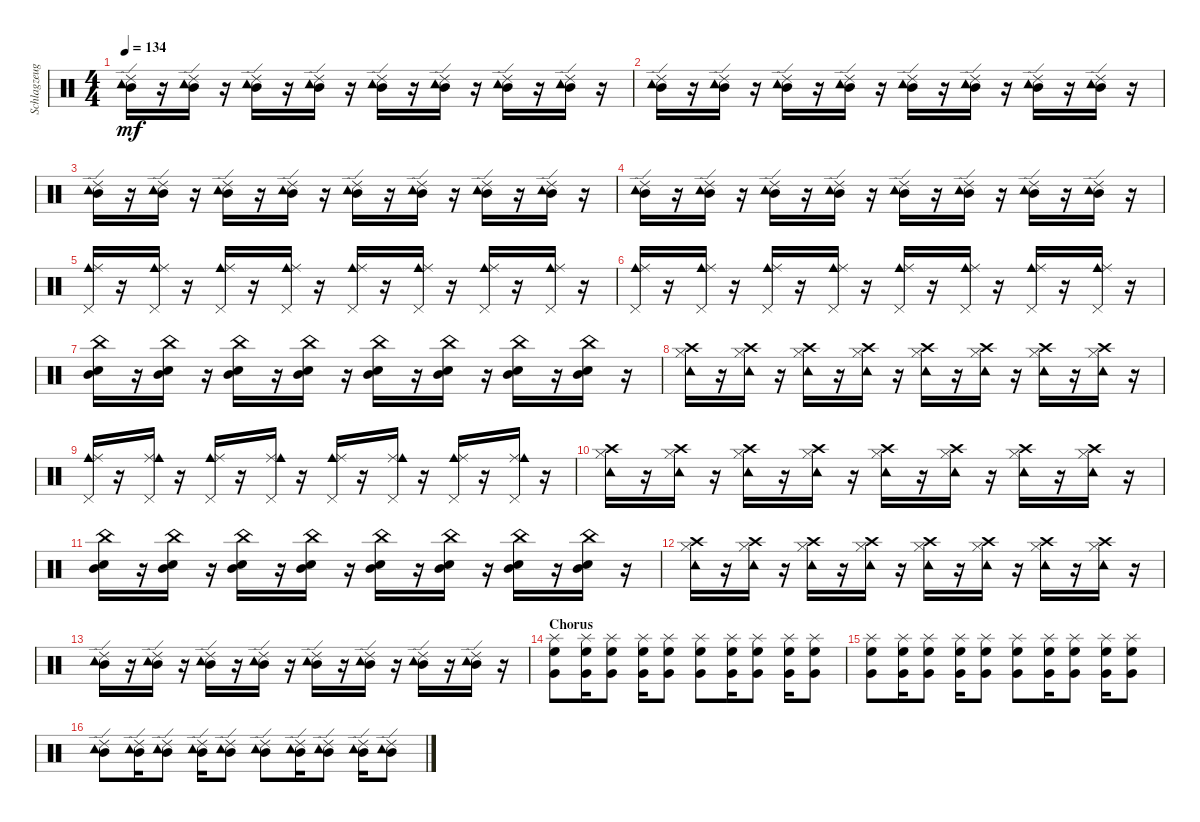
\track ("Schlagzeug - Bela B." "Schlagzeug") {instrument percussion}
\staff {score}
\articulation defaults
\ts (4 4)
\tempo 134
\clef neutral
\ks c
("Ride (edge) 2" "Tambourine (hit)" "Mid Tom (hit)").16{dy mf} r.16 ("Mid Tom (hit)" "Tambourine (hit)" "Ride (edge) 2").16 r.16 ("Ride (edge) 2" "Tambourine (hit)" "Mid Tom (hit)").16 r.16 ("Mid Tom (hit)" "Tambourine (hit)" "Ride (edge) 2").16 r.16 ("Ride (edge) 2" "Tambourine (hit)" "Mid Tom (hit)").16 r.16 ("Mid Tom (hit)" "Tambourine (hit)" "Ride (edge) 2").16 r.16 ("Ride (edge) 2" "Tambourine (hit)" "Mid Tom (hit)").16 r.16 ("Mid Tom (hit)" "Tambourine (hit)" "Ride (edge) 2").16 r.16 |
("Ride (edge) 2" "Tambourine (hit)" "Mid Tom (hit)").16 r.16 ("Mid Tom (hit)" "Tambourine (hit)" "Ride (edge) 2").16 r.16 ("Ride (edge) 2" "Tambourine (hit)" "Mid Tom (hit)").16 r.16 ("Mid Tom (hit)" "Tambourine (hit)" "Ride (edge) 2").16 r.16 ("Ride (edge) 2" "Tambourine (hit)" "Mid Tom (hit)").16 r.16 ("Mid Tom (hit)" "Tambourine (hit)" "Ride (edge) 2").16 r.16 ("Ride (edge) 2" "Tambourine (hit)" "Mid Tom (hit)").16 r.16 ("Mid Tom (hit)" "Tambourine (hit)" "Ride (edge) 2").16 r.16 |
("Ride (edge) 2" "Tambourine (hit)" "Mid Tom (hit)").16 r.16 ("Mid Tom (hit)" "Tambourine (hit)" "Ride (edge) 2").16 r.16 ("Ride (edge) 2" "Tambourine (hit)" "Mid Tom (hit)").16 r.16 ("Mid Tom (hit)" "Tambourine (hit)" "Ride (edge) 2").16 r.16 ("Ride (edge) 2" "Tambourine (hit)" "Mid Tom (hit)").16 r.16 ("Mid Tom (hit)" "Tambourine (hit)" "Ride (edge) 2").16 r.16 ("Ride (edge) 2" "Tambourine (hit)" "Mid Tom (hit)").16 r.16 ("Mid Tom (hit)" "Tambourine (hit)" "Ride (edge) 2").16 r.16 |
("Ride (edge) 2" "Tambourine (hit)" "Mid Tom (hit)").16 r.16 ("Mid Tom (hit)" "Tambourine (hit)" "Ride (edge) 2").16 r.16 ("Ride (edge) 2" "Tambourine (hit)" "Mid Tom (hit)").16 r.16 ("Mid Tom (hit)" "Tambourine (hit)" "Ride (edge) 2").16 r.16 ("Ride (edge) 2" "Tambourine (hit)" "Mid Tom (hit)").16 r.16 ("Mid Tom (hit)" "Tambourine (hit)" "Ride (edge) 2").16 r.16 ("Ride (edge) 2" "Tambourine (hit)" "Mid Tom (hit)").16 r.16 ("Mid Tom (hit)" "Tambourine (hit)" "Ride (edge) 2").16 r.16 |
("Cowbell medium (hit)" "Ride (middle)" "Pedal Hi-Hat (hit)").16 r.16 ("Cowbell medium (hit)" "Ride (middle)" "Pedal Hi-Hat (hit)").16 r.16 ("Cowbell medium (hit)" "Ride (middle)" "Pedal Hi-Hat (hit)").16 r.16 ("Cowbell medium (hit)" "Ride (middle)" "Pedal Hi-Hat (hit)").16 r.16 ("Cowbell medium (hit)" "Ride (middle)" "Pedal Hi-Hat (hit)").16 r.16 ("Cowbell medium (hit)" "Ride (middle)" "Pedal Hi-Hat (hit)").16 r.16 ("Cowbell medium (hit)" "Ride (middle)" "Pedal Hi-Hat (hit)").16 r.16 ("Cowbell medium (hit)" "Ride (middle)" "Pedal Hi-Hat (hit)").16 r.16 |
("Cowbell medium (hit)" "Ride (middle)" "Pedal Hi-Hat (hit)").16 r.16 ("Cowbell medium (hit)" "Ride (middle)" "Pedal Hi-Hat (hit)").16 r.16 ("Cowbell medium (hit)" "Ride (middle)" "Pedal Hi-Hat (hit)").16 r.16 ("Cowbell medium (hit)" "Ride (middle)" "Pedal Hi-Hat (hit)").16 r.16 ("Cowbell medium (hit)" "Ride (middle)" "Pedal Hi-Hat (hit)").16 r.16 ("Cowbell medium (hit)" "Ride (middle)" "Pedal Hi-Hat (hit)").16 r.16 ("Cowbell medium (hit)" "Ride (middle)" "Pedal Hi-Hat (hit)").16 r.16 ("Cowbell medium (hit)" "Ride (middle)" "Pedal Hi-Hat (hit)").16 r.16 |
("Electric Snare (hit)" "Mid Tom (hit)" "China (hit)").16 r.16 ("Electric Snare (hit)" "Mid Tom (hit)" "China (hit)").16 r.16 ("Electric Snare (hit)" "Mid Tom (hit)" "China (hit)").16 r.16 ("Electric Snare (hit)" "Mid Tom (hit)" "China (hit)").16 r.16 ("Electric Snare (hit)" "Mid Tom (hit)" "China (hit)").16 r.16 ("Electric Snare (hit)" "Mid Tom (hit)" "China (hit)").16 r.16 ("Electric Snare (hit)" "Mid Tom (hit)" "China (hit)").16 r.16 ("Electric Snare (hit)" "Mid Tom (hit)" "China (hit)").16 r.16 |
("Hi-Hat (closed)" "Crash high (hit)" "Tambourine (hit)").16 r.16 ("Hi-Hat (closed)" "Crash high (hit)" "Tambourine (hit)").16 r.16 ("Hi-Hat (closed)" "Crash high (hit)" "Tambourine (hit)").16 r.16 ("Hi-Hat (closed)" "Crash high (hit)" "Tambourine (hit)").16 r.16 ("Hi-Hat (closed)" "Crash high (hit)" "Tambourine (hit)").16 r.16 ("Hi-Hat (closed)" "Crash high (hit)" "Tambourine (hit)").16 r.16 ("Hi-Hat (closed)" "Crash high (hit)" "Tambourine (hit)").16 r.16 ("Hi-Hat (closed)" "Crash high (hit)" "Tambourine (hit)").16 r.16 |
("Cowbell medium (hit)" "Ride (middle)" "Pedal Hi-Hat (hit)").16 r.16 ("Pedal Hi-Hat (hit)" "Ride (middle)" "Cowbell medium (hit)").16 r.16 ("Cowbell medium (hit)" "Ride (middle)" "Pedal Hi-Hat (hit)").16 r.16 ("Pedal Hi-Hat (hit)" "Ride (middle)" "Cowbell medium (hit)").16 r.16 ("Cowbell medium (hit)" "Ride (middle)" "Pedal Hi-Hat (hit)").16 r.16 ("Pedal Hi-Hat (hit)" "Ride (middle)" "Cowbell medium (hit)").16 r.16 ("Cowbell medium (hit)" "Ride (middle)" "Pedal Hi-Hat (hit)").16 r.16 ("Pedal Hi-Hat (hit)" "Ride (middle)" "Cowbell medium (hit)").16 r.16 |
("Hi-Hat (closed)" "Crash high (hit)" "Tambourine (hit)").16 r.16 ("Hi-Hat (closed)" "Crash high (hit)" "Tambourine (hit)").16 r.16 ("Hi-Hat (closed)" "Crash high (hit)" "Tambourine (hit)").16 r.16 ("Hi-Hat (closed)" "Crash high (hit)" "Tambourine (hit)").16 r.16 ("Hi-Hat (closed)" "Crash high (hit)" "Tambourine (hit)").16 r.16 ("Hi-Hat (closed)" "Crash high (hit)" "Tambourine (hit)").16 r.16 ("Hi-Hat (closed)" "Crash high (hit)" "Tambourine (hit)").16 r.16 ("Hi-Hat (closed)" "Crash high (hit)" "Tambourine (hit)").16 r.16 |
("Electric Snare (hit)" "Mid Tom (hit)" "China (hit)").16 r.16 ("Electric Snare (hit)" "Mid Tom (hit)" "China (hit)").16 r.16 ("Electric Snare (hit)" "Mid Tom (hit)" "China (hit)").16 r.16 ("Electric Snare (hit)" "Mid Tom (hit)" "China (hit)").16 r.16 ("Electric Snare (hit)" "Mid Tom (hit)" "China (hit)").16 r.16 ("Electric Snare (hit)" "Mid Tom (hit)" "China (hit)").16 r.16 ("Electric Snare (hit)" "Mid Tom (hit)" "China (hit)").16 r.16 ("Electric Snare (hit)" "Mid Tom (hit)" "China (hit)").16 r.16 |
("Hi-Hat (closed)" "Crash high (hit)" "Tambourine (hit)").16 r.16 ("Hi-Hat (closed)" "Crash high (hit)" "Tambourine (hit)").16 r.16 ("Hi-Hat (closed)" "Crash high (hit)" "Tambourine (hit)").16 r.16 ("Hi-Hat (closed)" "Crash high (hit)" "Tambourine (hit)").16 r.16 ("Hi-Hat (closed)" "Crash high (hit)" "Tambourine (hit)").16 r.16 ("Hi-Hat (closed)" "Crash high (hit)" "Tambourine (hit)").16 r.16 ("Hi-Hat (closed)" "Crash high (hit)" "Tambourine (hit)").16 r.16 ("Hi-Hat (closed)" "Crash high (hit)" "Tambourine (hit)").16 r.16 |
("Ride (edge) 2" "Tambourine (hit)" "Mid Tom (hit)").16 r.16 ("Mid Tom (hit)" "Tambourine (hit)" "Ride (edge) 2").16 r.16 ("Ride (edge) 2" "Tambourine (hit)" "Mid Tom (hit)").16 r.16 ("Mid Tom (hit)" "Tambourine (hit)" "Ride (edge) 2").16 r.16 ("Ride (edge) 2" "Tambourine (hit)" "Mid Tom (hit)").16 r.16 ("Mid Tom (hit)" "Tambourine (hit)" "Ride (edge) 2").16 r.16 ("Ride (edge) 2" "Tambourine (hit)" "Mid Tom (hit)").16 r.16 ("Mid Tom (hit)" "Tambourine (hit)" "Ride (edge) 2").16 r.16 |
\section ("" "Chorus")
("Very Low Tom (hit)" "High Floor Tom (hit)" "Splash (hit)").8 ("Very Low Tom (hit)" "High Floor Tom (hit)" "Splash (hit)").16 ("Very Low Tom (hit)" "High Floor Tom (hit)" "Splash (hit)").8 ("Very Low Tom (hit)" "High Floor Tom (hit)" "Splash (hit)").16 ("Very Low Tom (hit)" "High Floor Tom (hit)" "Splash (hit)").8 ("Very Low Tom (hit)" "High Floor Tom (hit)" "Splash (hit)").8 ("Very Low Tom (hit)" "High Floor Tom (hit)" "Splash (hit)").16 ("Very Low Tom (hit)" "High Floor Tom (hit)" "Splash (hit)").8 ("Very Low Tom (hit)" "High Floor Tom (hit)" "Splash (hit)").16 ("Very Low Tom (hit)" "High Floor Tom (hit)" "Splash (hit)").8 |
("Very Low Tom (hit)" "High Floor Tom (hit)" "Splash (hit)").8 ("Very Low Tom (hit)" "High Floor Tom (hit)" "Splash (hit)").16 ("Very Low Tom (hit)" "High Floor Tom (hit)" "Splash (hit)").8 ("Very Low Tom (hit)" "High Floor Tom (hit)" "Splash (hit)").16 ("Very Low Tom (hit)" "High Floor Tom (hit)" "Splash (hit)").8 ("Very Low Tom (hit)" "High Floor Tom (hit)" "Splash (hit)").8 ("Very Low Tom (hit)" "High Floor Tom (hit)" "Splash (hit)").16 ("Very Low Tom (hit)" "High Floor Tom (hit)" "Splash (hit)").8 ("Very Low Tom (hit)" "High Floor Tom (hit)" "Splash (hit)").16 ("Very Low Tom (hit)" "High Floor Tom (hit)" "Splash (hit)").8 |
("Mid Tom (hit)" "Tambourine (hit)" "Ride (edge) 2").8 ("Mid Tom (hit)" "Tambourine (hit)" "Ride (edge) 2").16 ("Mid Tom (hit)" "Tambourine (hit)" "Ride (edge) 2").8 ("Mid Tom (hit)" "Tambourine (hit)" "Ride (edge) 2").16 ("Mid Tom (hit)" "Tambourine (hit)" "Ride (edge) 2").8 ("Mid Tom (hit)" "Tambourine (hit)" "Ride (edge) 2").8 ("Mid Tom (hit)" "Tambourine (hit)" "Ride (edge) 2").16 ("Mid Tom (hit)" "Tambourine (hit)" "Ride (edge) 2").8 ("Mid Tom (hit)" "Tambourine (hit)" "Ride (edge) 2").16 ("Mid Tom (hit)" "Tambourine (hit)" "Ride (edge) 2").8
